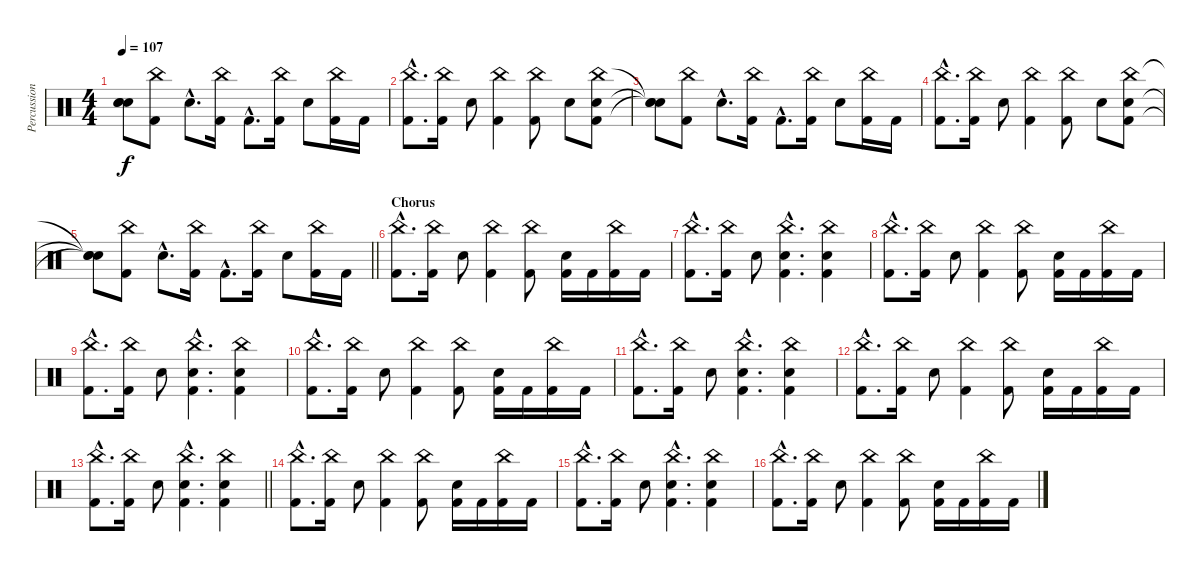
\track ("Percussion" "Percussion") {instrument percussion}
\staff {score}
\articulation defaults
\ts (4 4)
\tempo 107
\clef neutral
\ks c
("Snare (hit)"{t} "Snare (hit)"{t} "Snare (hit)"{t}).8{dy f} ("China (hit)" "Kick (hit) 2").8 "Electric Snare (hit)"{hac}.8{d} ("China (hit)" "Kick (hit) 2").16 "Kick (hit) 2"{hac}.8{d} ("China (hit)" "Kick (hit) 2").16 "Electric Snare (hit)".8 ("China (hit)" "Kick (hit) 2").16 "Kick (hit) 2".16 |
("China (hit)"{hac} "Kick (hit) 2"{hac}).8{d} ("China (hit)" "Kick (hit) 2").16 "Electric Snare (hit)".8 ("China (hit)" "Kick (hit) 2").4 ("China (hit)" "Kick (hit) 2").8 "Electric Snare (hit)".8 ("China (hit)" "Electric Snare (hit)" "Kick (hit) 2").8 |
("Snare (hit)"{t} "Snare (hit)"{t} "Snare (hit)"{t}).8 ("China (hit)" "Kick (hit) 2").8 "Electric Snare (hit)"{hac}.8{d} ("China (hit)" "Kick (hit) 2").16 "Kick (hit) 2"{hac}.8{d} ("China (hit)" "Kick (hit) 2").16 "Electric Snare (hit)".8 ("China (hit)" "Kick (hit) 2").16 "Kick (hit) 2".16 |
("China (hit)"{hac} "Kick (hit) 2"{hac}).8{d} ("China (hit)" "Kick (hit) 2").16 "Electric Snare (hit)".8 ("China (hit)" "Kick (hit) 2").4 ("China (hit)" "Kick (hit) 2").8 "Electric Snare (hit)".8 ("China (hit)" "Electric Snare (hit)" "Kick (hit) 2").8 |
\barLineRight lightlight
("Snare (hit)"{t} "Snare (hit)"{t} "Snare (hit)"{t}).8 ("China (hit)" "Kick (hit) 2").8 "Electric Snare (hit)"{hac}.8{d} ("China (hit)" "Kick (hit) 2").16 "Kick (hit) 2"{hac}.8{d} ("China (hit)" "Kick (hit) 2").16 "Electric Snare (hit)".8 ("China (hit)" "Kick (hit) 2").16 "Kick (hit) 2".16 |
\section ("" "Chorus")
("China (hit)"{hac} "Kick (hit) 2"{hac}).8{d} ("China (hit)" "Kick (hit) 2").16 "Electric Snare (hit)".8 ("China (hit)" "Kick (hit) 2").4 ("China (hit)" "Kick (hit) 2").8 ("Electric Snare (hit)" "Kick (hit) 2").16 "Kick (hit) 2".16 ("China (hit)" "Kick (hit) 2").16 "Kick (hit) 2".16 |
("China (hit)"{hac} "Kick (hit) 2"{hac}).8{d} ("China (hit)" "Kick (hit) 2").16 "Electric Snare (hit)".8 ("China (hit)"{hac} "Electric Snare (hit)"{hac} "Kick (hit) 2"{hac}).4{d} ("China (hit)" "Electric Snare (hit)" "Kick (hit) 2").4 |
("China (hit)"{hac} "Kick (hit) 2"{hac}).8{d} ("China (hit)" "Kick (hit) 2").16 "Electric Snare (hit)".8 ("China (hit)" "Kick (hit) 2").4 ("China (hit)" "Kick (hit) 2").8 ("Electric Snare (hit)" "Kick (hit) 2").16 "Kick (hit) 2".16 ("China (hit)" "Kick (hit) 2").16 "Kick (hit) 2".16 |
("China (hit)"{hac} "Kick (hit) 2"{hac}).8{d} ("China (hit)" "Kick (hit) 2").16 "Electric Snare (hit)".8 ("China (hit)"{hac} "Electric Snare (hit)"{hac} "Kick (hit) 2"{hac}).4{d} ("China (hit)" "Electric Snare (hit)" "Kick (hit) 2").4 |
("China (hit)"{hac} "Kick (hit) 2"{hac}).8{d} ("China (hit)" "Kick (hit) 2").16 "Electric Snare (hit)".8 ("China (hit)" "Kick (hit) 2").4 ("China (hit)" "Kick (hit) 2").8 ("Electric Snare (hit)" "Kick (hit) 2").16 "Kick (hit) 2".16 ("China (hit)" "Kick (hit) 2").16 "Kick (hit) 2".16 |
("China (hit)"{hac} "Kick (hit) 2"{hac}).8{d} ("China (hit)" "Kick (hit) 2").16 "Electric Snare (hit)".8 ("China (hit)"{hac} "Electric Snare (hit)"{hac} "Kick (hit) 2"{hac}).4{d} ("China (hit)" "Electric Snare (hit)" "Kick (hit) 2").4 |
("China (hit)"{hac} "Kick (hit) 2"{hac}).8{d} ("China (hit)" "Kick (hit) 2").16 "Electric Snare (hit)".8 ("China (hit)" "Kick (hit) 2").4 ("China (hit)" "Kick (hit) 2").8 ("Electric Snare (hit)" "Kick (hit) 2").16 "Kick (hit) 2".16 ("China (hit)" "Kick (hit) 2").16 "Kick (hit) 2".16 |
\barLineRight lightlight
("China (hit)"{hac} "Kick (hit) 2"{hac}).8{d} ("China (hit)" "Kick (hit) 2").16 "Electric Snare (hit)".8 ("China (hit)"{hac} "Electric Snare (hit)"{hac} "Kick (hit) 2"{hac}).4{d} ("China (hit)" "Electric Snare (hit)" "Kick (hit) 2").4 |
("China (hit)"{hac} "Kick (hit) 2"{hac}).8{d} ("China (hit)" "Kick (hit) 2").16 "Electric Snare (hit)".8 ("China (hit)" "Kick (hit) 2").4 ("China (hit)" "Kick (hit) 2").8 ("Electric Snare (hit)" "Kick (hit) 2").16 "Kick (hit) 2".16 ("China (hit)" "Kick (hit) 2").16 "Kick (hit) 2".16 |
("China (hit)"{hac} "Kick (hit) 2"{hac}).8{d} ("China (hit)" "Kick (hit) 2").16 "Electric Snare (hit)".8 ("China (hit)"{hac} "Electric Snare (hit)"{hac} "Kick (hit) 2"{hac}).4{d} ("China (hit)" "Electric Snare (hit)" "Kick (hit) 2").4 |
("China (hit)"{hac} "Kick (hit) 2"{hac}).8{d} ("China (hit)" "Kick (hit) 2").16 "Electric Snare (hit)".8 ("China (hit)" "Kick (hit) 2").4 ("China (hit)" "Kick (hit) 2").8 ("Electric Snare (hit)" "Kick (hit) 2").16 "Kick (hit) 2".16 ("China (hit)" "Kick (hit) 2").16 "Kick (hit) 2".16
